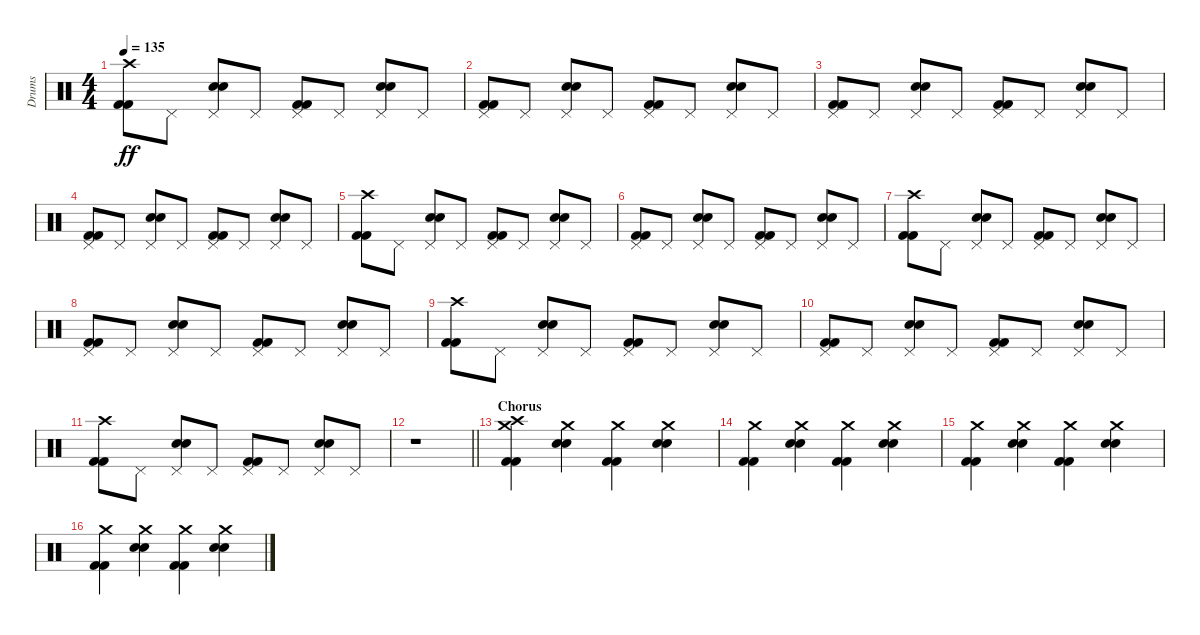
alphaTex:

\track ("Drums" "Drums") {instrument percussion}
\staff {score}
\articulation defaults
\ts (4 4)
\tempo 135
\clef neutral
\ks c
("Crash high (hit)" "Kick (hit) 2" "Kick (hit) 2").8{dy ff} "Pedal Hi-Hat (hit)".8 ("Pedal Hi-Hat (hit)" "Electric Snare (hit)" "Electric Snare (hit)").8 "Pedal Hi-Hat (hit)".8 ("Pedal Hi-Hat (hit)" "Kick (hit) 2" "Kick (hit) 2").8 "Pedal Hi-Hat (hit)".8 ("Pedal Hi-Hat (hit)" "Electric Snare (hit)" "Electric Snare (hit)").8 "Pedal Hi-Hat (hit)".8 |
("Pedal Hi-Hat (hit)" "Kick (hit) 2" "Kick (hit) 2").8 "Pedal Hi-Hat (hit)".8 ("Pedal Hi-Hat (hit)" "Electric Snare (hit)" "Electric Snare (hit)").8 "Pedal Hi-Hat (hit)".8 ("Pedal Hi-Hat (hit)" "Kick (hit) 2" "Kick (hit) 2").8 "Pedal Hi-Hat (hit)".8 ("Pedal Hi-Hat (hit)" "Electric Snare (hit)" "Electric Snare (hit)").8 "Pedal Hi-Hat (hit)".8 |
("Pedal Hi-Hat (hit)" "Kick (hit) 2" "Kick (hit) 2").8 "Pedal Hi-Hat (hit)".8 ("Pedal Hi-Hat (hit)" "Electric Snare (hit)" "Electric Snare (hit)").8 "Pedal Hi-Hat (hit)".8 ("Pedal Hi-Hat (hit)" "Kick (hit) 2" "Kick (hit) 2").8 "Pedal Hi-Hat (hit)".8 ("Pedal Hi-Hat (hit)" "Electric Snare (hit)" "Electric Snare (hit)").8 "Pedal Hi-Hat (hit)".8 |
("Pedal Hi-Hat (hit)" "Kick (hit) 2" "Kick (hit) 2").8 "Pedal Hi-Hat (hit)".8 ("Pedal Hi-Hat (hit)" "Electric Snare (hit)" "Electric Snare (hit)").8 "Pedal Hi-Hat (hit)".8 ("Pedal Hi-Hat (hit)" "Kick (hit) 2" "Kick (hit) 2").8 "Pedal Hi-Hat (hit)".8 ("Pedal Hi-Hat (hit)" "Electric Snare (hit)" "Electric Snare (hit)").8 "Pedal Hi-Hat (hit)".8 |
("Crash high (hit)" "Kick (hit) 2" "Kick (hit) 2").8 "Pedal Hi-Hat (hit)".8 ("Pedal Hi-Hat (hit)" "Electric Snare (hit)" "Electric Snare (hit)").8 "Pedal Hi-Hat (hit)".8 ("Pedal Hi-Hat (hit)" "Kick (hit) 2" "Kick (hit) 2").8 "Pedal Hi-Hat (hit)".8 ("Pedal Hi-Hat (hit)" "Electric Snare (hit)" "Electric Snare (hit)").8 "Pedal Hi-Hat (hit)".8 |
("Pedal Hi-Hat (hit)" "Kick (hit) 2" "Kick (hit) 2").8 "Pedal Hi-Hat (hit)".8 ("Pedal Hi-Hat (hit)" "Electric Snare (hit)" "Electric Snare (hit)").8 "Pedal Hi-Hat (hit)".8 ("Pedal Hi-Hat (hit)" "Kick (hit) 2" "Kick (hit) 2").8 "Pedal Hi-Hat (hit)".8 ("Pedal Hi-Hat (hit)" "Electric Snare (hit)" "Electric Snare (hit)").8 "Pedal Hi-Hat (hit)".8 |
("Crash high (hit)" "Kick (hit) 2" "Kick (hit) 2").8 "Pedal Hi-Hat (hit)".8 ("Pedal Hi-Hat (hit)" "Electric Snare (hit)" "Electric Snare (hit)").8 "Pedal Hi-Hat (hit)".8 ("Pedal Hi-Hat (hit)" "Kick (hit) 2" "Kick (hit) 2").8 "Pedal Hi-Hat (hit)".8 ("Pedal Hi-Hat (hit)" "Electric Snare (hit)" "Electric Snare (hit)").8 "Pedal Hi-Hat (hit)".8 |
("Pedal Hi-Hat (hit)" "Kick (hit) 2" "Kick (hit) 2").8 "Pedal Hi-Hat (hit)".8 ("Pedal Hi-Hat (hit)" "Electric Snare (hit)" "Electric Snare (hit)").8 "Pedal Hi-Hat (hit)".8 ("Pedal Hi-Hat (hit)" "Kick (hit) 2" "Kick (hit) 2").8 "Pedal Hi-Hat (hit)".8 ("Pedal Hi-Hat (hit)" "Electric Snare (hit)" "Electric Snare (hit)").8 "Pedal Hi-Hat (hit)".8 |
("Crash high (hit)" "Kick (hit) 2" "Kick (hit) 2").8 "Pedal Hi-Hat (hit)".8 ("Pedal Hi-Hat (hit)" "Electric Snare (hit)" "Electric Snare (hit)").8 "Pedal Hi-Hat (hit)".8 ("Pedal Hi-Hat (hit)" "Kick (hit) 2" "Kick (hit) 2").8 "Pedal Hi-Hat (hit)".8 ("Pedal Hi-Hat (hit)" "Electric Snare (hit)" "Electric Snare (hit)").8 "Pedal Hi-Hat (hit)".8 |
("Pedal Hi-Hat (hit)" "Kick (hit) 2" "Kick (hit) 2").8 "Pedal Hi-Hat (hit)".8 ("Pedal Hi-Hat (hit)" "Electric Snare (hit)" "Electric Snare (hit)").8 "Pedal Hi-Hat (hit)".8 ("Pedal Hi-Hat (hit)" "Kick (hit) 2" "Kick (hit) 2").8 "Pedal Hi-Hat (hit)".8 ("Pedal Hi-Hat (hit)" "Electric Snare (hit)" "Electric Snare (hit)").8 "Pedal Hi-Hat (hit)".8 |
("Crash high (hit)" "Kick (hit) 2" "Kick (hit) 2").8 "Pedal Hi-Hat (hit)".8 ("Pedal Hi-Hat (hit)" "Electric Snare (hit)" "Electric Snare (hit)").8 "Pedal Hi-Hat (hit)".8 ("Pedal Hi-Hat (hit)" "Kick (hit) 2" "Kick (hit) 2").8 "Pedal Hi-Hat (hit)".8 ("Pedal Hi-Hat (hit)" "Electric Snare (hit)" "Electric Snare (hit)").8 "Pedal Hi-Hat (hit)".8 |
\barLineRight lightlight
r.1 |
\section ("" "Chorus")
("Crash high (hit)" "Crash medium (hit)" "Kick (hit) 2" "Kick (hit) 2").4 ("Crash medium (hit)" "Electric Snare (hit)" "Electric Snare (hit)").4 ("Crash medium (hit)" "Kick (hit) 2" "Kick (hit) 2").4 ("Crash medium (hit)" "Electric Snare (hit)" "Electric Snare (hit)").4 |
("Crash medium (hit)" "Kick (hit) 2" "Kick (hit) 2").4 ("Crash medium (hit)" "Electric Snare (hit)" "Electric Snare (hit)").4 ("Crash medium (hit)" "Kick (hit) 2" "Kick (hit) 2").4 ("Crash medium (hit)" "Electric Snare (hit)" "Electric Snare (hit)").4 |
("Crash medium (hit)" "Kick (hit) 2" "Kick (hit) 2").4 ("Crash medium (hit)" "Electric Snare (hit)" "Electric Snare (hit)").4 ("Crash medium (hit)" "Kick (hit) 2" "Kick (hit) 2").4 ("Crash medium (hit)" "Electric Snare (hit)" "Electric Snare (hit)").4 |
("Crash medium (hit)" "Kick (hit) 2" "Kick (hit) 2").4 ("Crash medium (hit)" "Electric Snare (hit)" "Electric Snare (hit)").4 ("Crash medium (hit)" "Kick (hit) 2" "Kick (hit) 2").4 ("Crash medium (hit)" "Electric Snare (hit)" "Electric Snare (hit)").4
